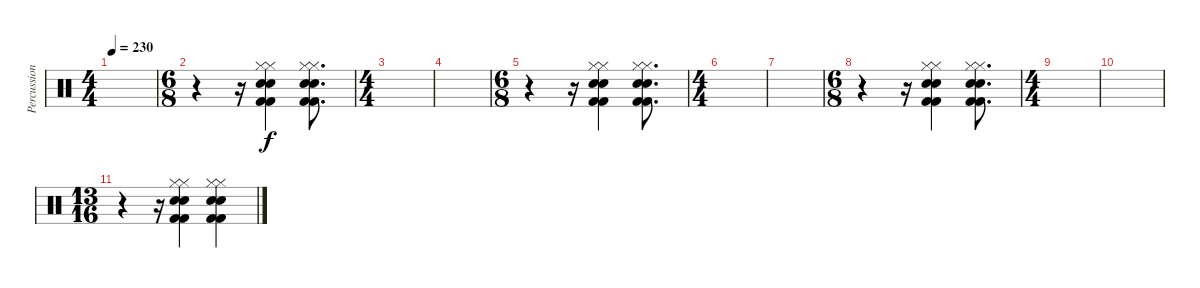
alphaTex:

\track ("Percussion" "Percussion") {instrument percussion}
\staff {score}
\articulation defaults
\ts (4 4)
\tempo 230
\clef neutral
\ks c
|
\ts (6 8)
r.4 r.16 ("Hi-Hat (closed)" "Hi-Hat (closed)" "Electric Snare (hit)" "Electric Snare (hit)" "Kick (hit) 2" "Kick (hit) 2").4 ("Hi-Hat (closed)" "Hi-Hat (closed)" "Electric Snare (hit)" "Electric Snare (hit)" "Kick (hit) 2" "Kick (hit) 2").8{d} |
\ts (4 4)
|
|
\ts (6 8)
r.4 r.16 ("Hi-Hat (closed)" "Hi-Hat (closed)" "Electric Snare (hit)" "Electric Snare (hit)" "Kick (hit) 2" "Kick (hit) 2").4 ("Hi-Hat (closed)" "Hi-Hat (closed)" "Electric Snare (hit)" "Electric Snare (hit)" "Kick (hit) 2" "Kick (hit) 2").8{d} |
\ts (4 4)
|
|
\ts (6 8)
r.4 r.16 ("Hi-Hat (closed)" "Hi-Hat (closed)" "Electric Snare (hit)" "Electric Snare (hit)" "Kick (hit) 2" "Kick (hit) 2").4 ("Hi-Hat (closed)" "Hi-Hat (closed)" "Electric Snare (hit)" "Electric Snare (hit)" "Kick (hit) 2" "Kick (hit) 2").8{d} |
\ts (4 4)
|
|
\ts (13 16)
r.4 r.16 ("Hi-Hat (closed)" "Hi-Hat (closed)" "Electric Snare (hit)" "Electric Snare (hit)" "Kick (hit) 2" "Kick (hit) 2").4 ("Hi-Hat (closed)" "Hi-Hat (closed)" "Electric Snare (hit)" "Electric Snare (hit)" "Kick (hit) 2" "Kick (hit) 2").4
